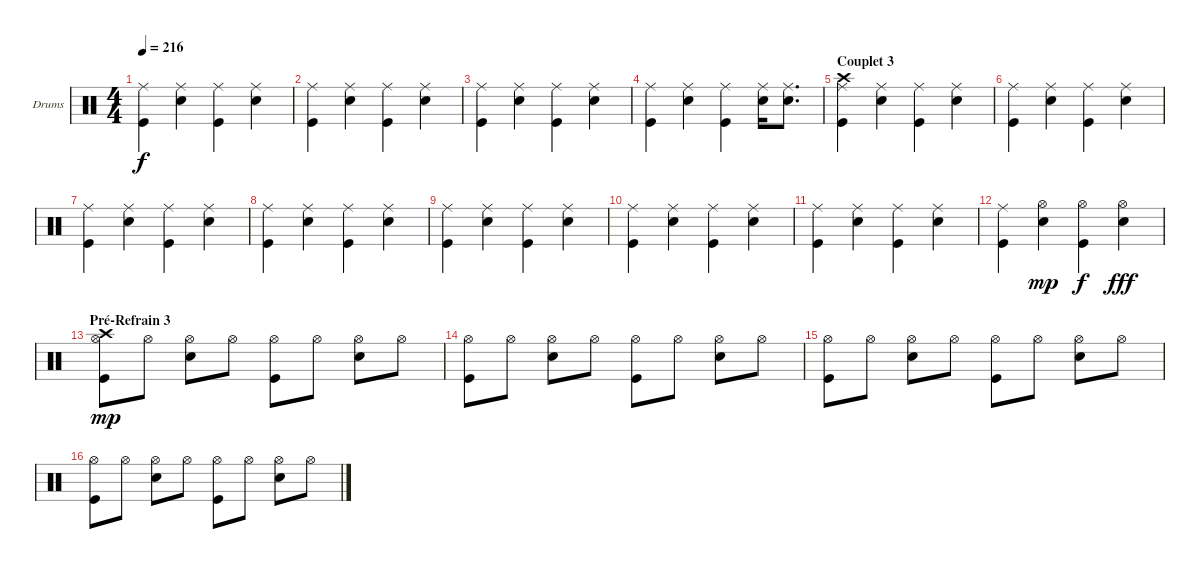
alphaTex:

\bracketExtendMode groupsimilarinstruments
\firstSystemTrackNameOrientation horizontal
\otherSystemsTrackNameOrientation horizontal
\chordDiagramsInScore
\track ("Drumkit" "Drums") {instrument percussion}
\staff {score}
\articulation defaults
\ts (4 4)
\tempo 216
\clef neutral
\ks c
("Ride (middle)" "Kick (hit)").4{dy f} ("Ride (middle)" "Snare (hit) 2").4 ("Ride (middle)" "Kick (hit)").4 ("Ride (middle)" "Snare (hit) 2").4 |
("Ride (middle)" "Kick (hit)").4 ("Ride (middle)" "Snare (hit) 2").4 ("Ride (middle)" "Kick (hit)").4 ("Ride (middle)" "Snare (hit) 2").4 |
("Ride (middle)" "Kick (hit)").4 ("Ride (middle)" "Snare (hit) 2").4 ("Ride (middle)" "Kick (hit)").4 ("Ride (middle)" "Snare (hit) 2").4 |
("Ride (middle)" "Kick (hit)").4 ("Ride (middle)" "Snare (hit) 2").4 ("Ride (middle)" "Kick (hit)").4 ("Ride (middle)" "Snare (hit) 2").16 ("Ride (middle)" "Snare (hit) 2").8{d} |
\section ("" "Couplet 3")
("Ride (middle)" "Crash high (hit)" "Kick (hit)").4 ("Ride (middle)" "Snare (hit) 2").4 ("Ride (middle)" "Kick (hit)").4 ("Ride (middle)" "Snare (hit) 2").4 |
("Ride (middle)" "Kick (hit)").4 ("Ride (middle)" "Snare (hit) 2").4 ("Ride (middle)" "Kick (hit)").4 ("Ride (middle)" "Snare (hit) 2").4 |
("Ride (middle)" "Kick (hit)").4 ("Ride (middle)" "Snare (hit) 2").4 ("Ride (middle)" "Kick (hit)").4 ("Ride (middle)" "Snare (hit) 2").4 |
("Ride (middle)" "Kick (hit)").4 ("Ride (middle)" "Snare (hit) 2").4 ("Ride (middle)" "Kick (hit)").4 ("Ride (middle)" "Snare (hit) 2").4 |
("Ride (middle)" "Kick (hit)").4 ("Ride (middle)" "Snare (hit) 2").4 ("Ride (middle)" "Kick (hit)").4 ("Ride (middle)" "Snare (hit) 2").4 |
("Ride (middle)" "Kick (hit)").4 ("Ride (middle)" "Snare (hit) 2").4 ("Ride (middle)" "Kick (hit)").4 ("Ride (middle)" "Snare (hit) 2").4 |
("Ride (middle)" "Kick (hit)").4 ("Ride (middle)" "Snare (hit) 2").4 ("Ride (middle)" "Kick (hit)").4 ("Ride (middle)" "Snare (hit) 2").4 |
("Ride (middle)" "Kick (hit)").4 ("Hi-Hat (open)" "Snare (hit) 2").4{dy mp} ("Hi-Hat (open)" "Kick (hit)").4{dy f} ("Hi-Hat (open)" "Snare (hit) 2").4{dy fff} |
\section ("" "Pré-Refrain 3")
("Hi-Hat (open)" "Crash high (hit)" "Kick (hit)").8{dy mp} "Hi-Hat (open)".8 ("Hi-Hat (open)" "Snare (hit) 2").8 "Hi-Hat (open)".8 ("Hi-Hat (open)" "Kick (hit)").8 "Hi-Hat (open)".8 ("Hi-Hat (open)" "Snare (hit) 2").8 "Hi-Hat (open)".8 |
("Hi-Hat (open)" "Kick (hit)").8 "Hi-Hat (open)".8 ("Hi-Hat (open)" "Snare (hit) 2").8 "Hi-Hat (open)".8 ("Hi-Hat (open)" "Kick (hit)").8 "Hi-Hat (open)".8 ("Hi-Hat (open)" "Snare (hit) 2").8 "Hi-Hat (open)".8 |
("Hi-Hat (open)" "Kick (hit)").8 "Hi-Hat (open)".8 ("Hi-Hat (open)" "Snare (hit) 2").8 "Hi-Hat (open)".8 ("Hi-Hat (open)" "Kick (hit)").8 "Hi-Hat (open)".8 ("Hi-Hat (open)" "Snare (hit) 2").8 "Hi-Hat (open)".8 |
("Hi-Hat (open)" "Kick (hit)").8 "Hi-Hat (open)".8 ("Hi-Hat (open)" "Snare (hit) 2").8 "Hi-Hat (open)".8 ("Hi-Hat (open)" "Kick (hit)").8 "Hi-Hat (open)".8 ("Hi-Hat (open)" "Snare (hit) 2").8 "Hi-Hat (open)".8
